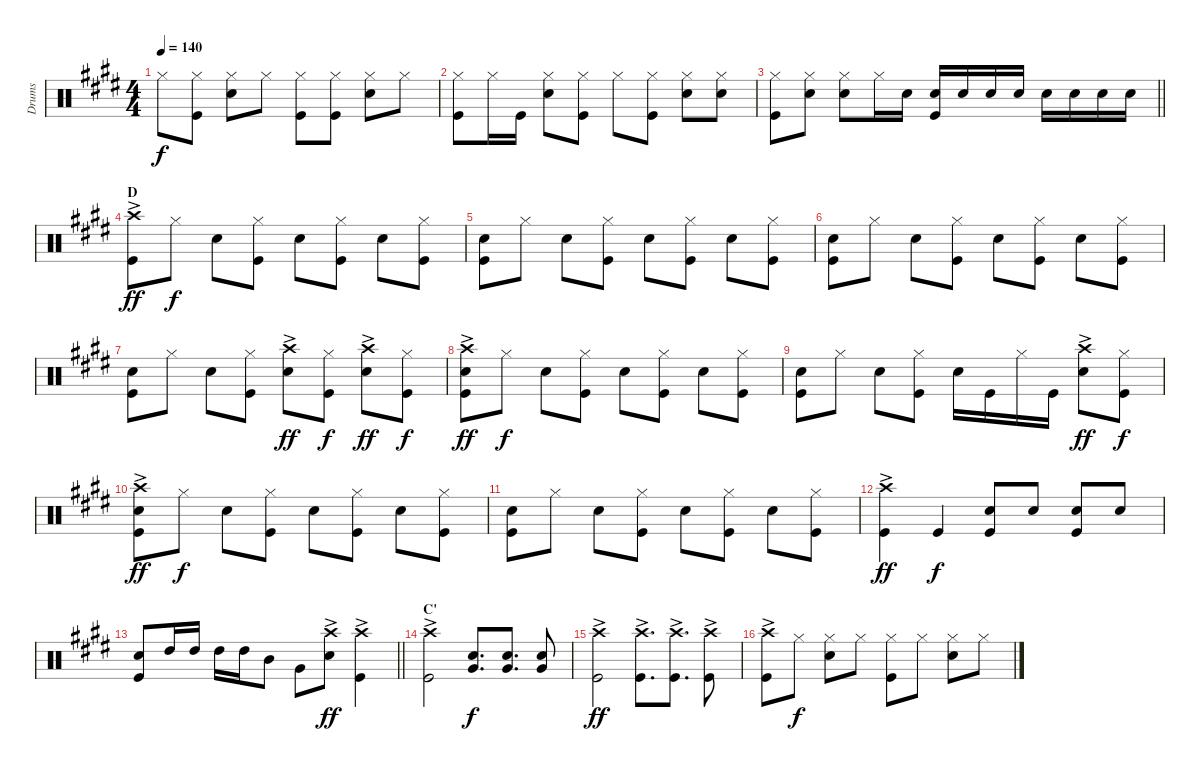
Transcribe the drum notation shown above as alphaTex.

\track ("Drums" "Drums") {instrument percussion}
\staff {score}
\articulation defaults
\ts (4 4)
\tempo 140
\clef neutral
\ks e "Hi-Hat (closed)".8{dy f}
("Kick (hit)" "Hi-Hat (closed)").8 ("Hi-Hat (closed)" "Snare (hit) 2").8 "Hi-Hat (closed)".8 ("Kick (hit)" "Hi-Hat (closed)").8 ("Hi-Hat (closed)" "Kick (hit)").8 ("Hi-Hat (closed)" "Snare (hit) 2").8 "Hi-Hat (closed)".8 |
("Hi-Hat (closed)" "Kick (hit)").8 "Hi-Hat (closed)".16 "Kick (hit)".16 ("Hi-Hat (closed)" "Snare (hit) 2").8 ("Hi-Hat (closed)" "Kick (hit)").8 "Hi-Hat (closed)".8 ("Hi-Hat (closed)" "Kick (hit)").8 ("Hi-Hat (closed)" "Snare (hit) 2").8 ("Hi-Hat (closed)" "Snare (hit) 2").8 |
\barLineRight lightlight
("Hi-Hat (closed)" "Kick (hit)").8 ("Hi-Hat (closed)" "Snare (hit) 2").8 ("Hi-Hat (closed)" "Snare (hit) 2").8 "Hi-Hat (closed)".16 "Snare (hit) 2".16 ("Kick (hit)" "Snare (hit) 2").16 "Snare (hit) 2".16 "Snare (hit) 2".16 "Snare (hit) 2".16 "Snare (hit) 2".16 "Snare (hit) 2".16 "Snare (hit) 2".16 "Snare (hit) 2".16 |
\section ("" "D")
("Crash high (hit)"{ac} "Kick (hit)").8{dy ff} "Hi-Hat (closed)".8{dy f} "Snare (hit) 2".8 ("Hi-Hat (closed)" "Kick (hit)").8 "Snare (hit) 2".8 ("Hi-Hat (closed)" "Kick (hit)").8 "Snare (hit) 2".8 ("Hi-Hat (closed)" "Kick (hit)").8 |
("Kick (hit)" "Snare (hit) 2").8 "Hi-Hat (closed)".8 "Snare (hit) 2".8 ("Hi-Hat (closed)" "Kick (hit)").8 "Snare (hit) 2".8 ("Hi-Hat (closed)" "Kick (hit)").8 "Snare (hit) 2".8 ("Hi-Hat (closed)" "Kick (hit)").8 |
("Kick (hit)" "Snare (hit) 2").8 "Hi-Hat (closed)".8 "Snare (hit) 2".8 ("Hi-Hat (closed)" "Kick (hit)").8 "Snare (hit) 2".8 ("Hi-Hat (closed)" "Kick (hit)").8 "Snare (hit) 2".8 ("Hi-Hat (closed)" "Kick (hit)").8 |
("Kick (hit)" "Snare (hit) 2").8 "Hi-Hat (closed)".8 "Snare (hit) 2".8 ("Hi-Hat (closed)" "Kick (hit)").8 ("Crash high (hit)"{ac} "Snare (hit) 2").8{dy ff} ("Hi-Hat (closed)" "Kick (hit)").8{dy f} ("Crash high (hit)"{ac} "Snare (hit) 2").8{dy ff} ("Hi-Hat (closed)" "Kick (hit)").8{dy f} |
("Crash high (hit)"{ac} "Snare (hit) 2" "Kick (hit)").8{dy ff} "Hi-Hat (closed)".8{dy f} "Snare (hit) 2".8 ("Hi-Hat (closed)" "Kick (hit)").8 "Snare (hit) 2".8 ("Hi-Hat (closed)" "Kick (hit)").8 "Snare (hit) 2".8 ("Hi-Hat (closed)" "Kick (hit)").8 |
("Kick (hit)" "Snare (hit) 2").8 "Hi-Hat (closed)".8 "Snare (hit) 2".8 ("Hi-Hat (closed)" "Kick (hit)").8 "Snare (hit) 2".16 "Kick (hit)".16 "Hi-Hat (closed)".16 "Kick (hit)".16 ("Crash high (hit)"{ac} "Snare (hit) 2").8{dy ff} ("Hi-Hat (closed)" "Kick (hit)").8{dy f} |
("Crash high (hit)"{ac} "Snare (hit) 2" "Kick (hit)").8{dy ff} "Hi-Hat (closed)".8{dy f} "Snare (hit) 2".8 ("Hi-Hat (closed)" "Kick (hit)").8 "Snare (hit) 2".8 ("Hi-Hat (closed)" "Kick (hit)").8 "Snare (hit) 2".8 ("Hi-Hat (closed)" "Kick (hit)").8 |
("Snare (hit) 2" "Kick (hit)").8 "Hi-Hat (closed)".8 "Snare (hit) 2".8 ("Kick (hit)" "Hi-Hat (closed)").8 "Snare (hit) 2".8 ("Kick (hit)" "Hi-Hat (closed)").8 "Snare (hit) 2".8 ("Kick (hit)" "Hi-Hat (closed)").8 |
("Crash high (hit)"{ac} "Kick (hit)").4{dy ff} "Kick (hit)".4{dy f} ("Snare (hit) 2" "Kick (hit)").8 "Snare (hit) 2".8 ("Kick (hit)" "Snare (hit) 2").8 "Snare (hit) 2".8 |
\barLineRight lightlight
("Snare (hit) 2" "Kick (hit)").8 "High Tom (hit)".16 "High Tom (hit)".16 "High Tom (hit)".16 "High Tom (hit)".16 "Mid Tom (hit)".8 "Very Low Tom (hit)".8 ("Snare (hit) 2" "Crash high (hit)"{ac}).8{dy ff} ("Crash high (hit)"{ac} "Kick (hit)").4 |
\section ("" "C'")
("Crash high (hit)"{ac} "Kick (hit)").2 ("Snare (hit) 2" "Very Low Tom (hit)").8{d dy f} ("Snare (hit) 2" "Very Low Tom (hit)").8{d} ("Snare (hit) 2" "Very Low Tom (hit)").8 |
("Crash high (hit)"{ac} "Kick (hit)").2{dy ff} ("Crash high (hit)"{ac} "Kick (hit)").8{d} ("Crash high (hit)"{ac} "Kick (hit)").8{d} ("Crash high (hit)"{ac} "Kick (hit)").8 |
("Crash high (hit)"{ac} "Kick (hit)").8 "Hi-Hat (closed)".8{dy f} ("Hi-Hat (closed)" "Snare (hit) 2").8 "Hi-Hat (closed)".8 ("Hi-Hat (closed)" "Kick (hit)").8 "Hi-Hat (closed)".8 ("Hi-Hat (closed)" "Snare (hit) 2").8 "Hi-Hat (closed)".8
